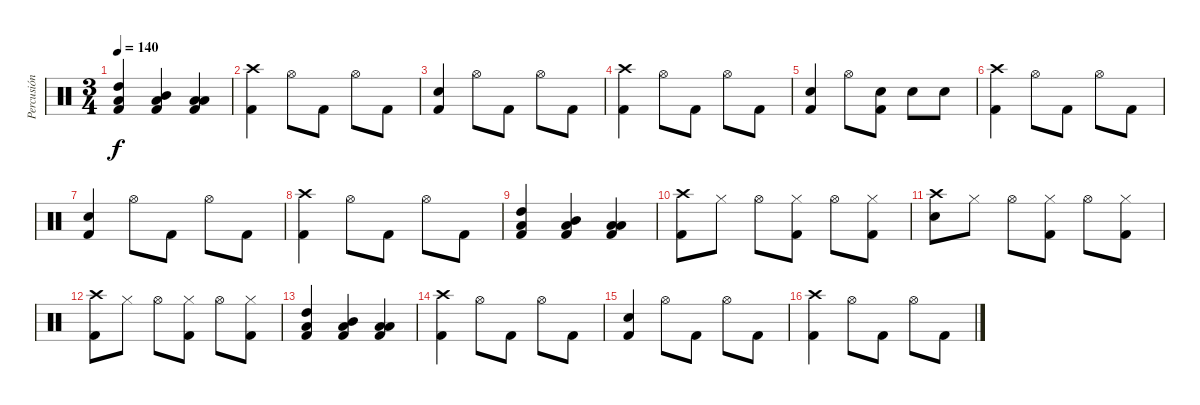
\track ("Percusión" "Percusión") {instrument percussion}
\staff {score}
\articulation defaults
\ts (3 4)
\tempo 140
\clef neutral
\ks c
("High Tom (hit)" "Low Floor Tom (hit)" "Kick (hit) 2").4{dy f} ("Mid Tom (hit)" "Low Floor Tom (hit)" "Kick (hit) 2").4 ("Low Tom (hit)" "Low Floor Tom (hit)" "Kick (hit) 2").4 |
("Crash high (hit)" "Kick (hit) 2").4 "Hi-Hat (open)".8 "Kick (hit) 2".8 "Hi-Hat (open)".8 "Kick (hit) 2".8 |
("Electric Snare (hit)" "Kick (hit) 2").4 "Hi-Hat (open)".8 "Kick (hit) 2".8 "Hi-Hat (open)".8 "Kick (hit) 2".8 |
("Crash high (hit)" "Kick (hit) 2").4 "Hi-Hat (open)".8 "Kick (hit) 2".8 "Hi-Hat (open)".8 "Kick (hit) 2".8 |
("Electric Snare (hit)" "Kick (hit) 2").4 "Hi-Hat (open)".8 ("Electric Snare (hit)" "Kick (hit) 2").8 "Electric Snare (hit)".8 "Electric Snare (hit)".8 |
("Crash high (hit)" "Kick (hit) 2").4 "Hi-Hat (open)".8 "Kick (hit) 2".8 "Hi-Hat (open)".8 "Kick (hit) 2".8 |
("Electric Snare (hit)" "Kick (hit) 2").4 "Hi-Hat (open)".8 "Kick (hit) 2".8 "Hi-Hat (open)".8 "Kick (hit) 2".8 |
("Crash high (hit)" "Kick (hit) 2").4 "Hi-Hat (open)".8 "Kick (hit) 2".8 "Hi-Hat (open)".8 "Kick (hit) 2".8 |
("High Tom (hit)" "Low Floor Tom (hit)" "Kick (hit) 2").4 ("Mid Tom (hit)" "Low Floor Tom (hit)" "Kick (hit) 2").4 ("Low Tom (hit)" "Low Floor Tom (hit)" "Kick (hit) 2").4 |
("Crash high (hit)" "Kick (hit) 2").8 "Hi-Hat (closed)".8 "Hi-Hat (open)".8 ("Hi-Hat (closed)" "Kick (hit) 2").8 "Hi-Hat (open)".8 ("Hi-Hat (closed)" "Kick (hit) 2").8 |
("Crash high (hit)" "Electric Snare (hit)").8 "Hi-Hat (closed)".8 "Hi-Hat (open)".8 ("Hi-Hat (closed)" "Kick (hit) 2").8 "Hi-Hat (open)".8 ("Hi-Hat (closed)" "Kick (hit) 2").8 |
("Crash high (hit)" "Kick (hit) 2").8 "Hi-Hat (closed)".8 "Hi-Hat (open)".8 ("Hi-Hat (closed)" "Kick (hit) 2").8 "Hi-Hat (open)".8 ("Hi-Hat (closed)" "Kick (hit) 2").8 |
("High Tom (hit)" "Low Floor Tom (hit)" "Kick (hit) 2").4 ("Mid Tom (hit)" "Low Floor Tom (hit)" "Kick (hit) 2").4 ("Low Tom (hit)" "Low Floor Tom (hit)" "Kick (hit) 2").4 |
("Crash high (hit)" "Kick (hit) 2").4 "Hi-Hat (open)".8 "Kick (hit) 2".8 "Hi-Hat (open)".8 "Kick (hit) 2".8 |
("Electric Snare (hit)" "Kick (hit) 2").4 "Hi-Hat (open)".8 "Kick (hit) 2".8 "Hi-Hat (open)".8 "Kick (hit) 2".8 |
("Crash high (hit)" "Kick (hit) 2").4 "Hi-Hat (open)".8 "Kick (hit) 2".8 "Hi-Hat (open)".8 "Kick (hit) 2".8
